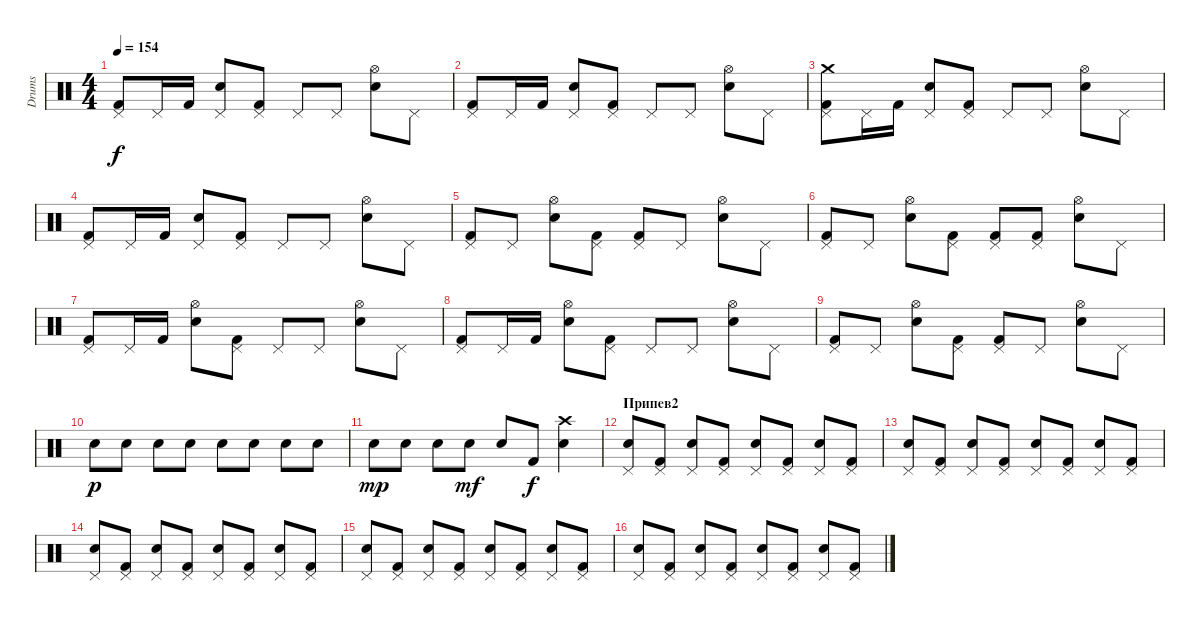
\track ("Drums" "Drums") {instrument percussion}
\staff {score}
\articulation defaults
\ts (4 4)
\tempo 154
\clef neutral
\ks c
("Pedal Hi-Hat (hit)" "Kick (hit) 2").8{dy f} "Pedal Hi-Hat (hit)".16 "Kick (hit) 2".16 ("Pedal Hi-Hat (hit)" "Electric Snare (hit)").8 ("Pedal Hi-Hat (hit)" "Kick (hit) 2").8 "Pedal Hi-Hat (hit)".8 "Pedal Hi-Hat (hit)".8 ("Hi-Hat (open)" "Electric Snare (hit)").8 "Pedal Hi-Hat (hit)".8 |
("Pedal Hi-Hat (hit)" "Kick (hit) 2").8 "Pedal Hi-Hat (hit)".16 "Kick (hit) 2".16 ("Pedal Hi-Hat (hit)" "Electric Snare (hit)").8 ("Pedal Hi-Hat (hit)" "Kick (hit) 2").8 "Pedal Hi-Hat (hit)".8 "Pedal Hi-Hat (hit)".8 ("Hi-Hat (open)" "Electric Snare (hit)").8 "Pedal Hi-Hat (hit)".8 |
("Crash medium (hit)" "Pedal Hi-Hat (hit)" "Kick (hit) 2").8 "Pedal Hi-Hat (hit)".16 "Kick (hit) 2".16 ("Pedal Hi-Hat (hit)" "Electric Snare (hit)").8 ("Pedal Hi-Hat (hit)" "Kick (hit) 2").8 "Pedal Hi-Hat (hit)".8 "Pedal Hi-Hat (hit)".8 ("Hi-Hat (open)" "Electric Snare (hit)").8 "Pedal Hi-Hat (hit)".8 |
("Pedal Hi-Hat (hit)" "Kick (hit) 2").8 "Pedal Hi-Hat (hit)".16 "Kick (hit) 2".16 ("Pedal Hi-Hat (hit)" "Electric Snare (hit)").8 ("Pedal Hi-Hat (hit)" "Kick (hit) 2").8 "Pedal Hi-Hat (hit)".8 "Pedal Hi-Hat (hit)".8 ("Hi-Hat (open)" "Electric Snare (hit)").8 "Pedal Hi-Hat (hit)".8 |
("Pedal Hi-Hat (hit)" "Kick (hit) 2").8 "Pedal Hi-Hat (hit)".8 ("Hi-Hat (open)" "Electric Snare (hit)").8 ("Pedal Hi-Hat (hit)" "Kick (hit) 2").8 ("Pedal Hi-Hat (hit)" "Kick (hit) 2").8 "Pedal Hi-Hat (hit)".8 ("Hi-Hat (open)" "Electric Snare (hit)").8 "Pedal Hi-Hat (hit)".8 |
("Pedal Hi-Hat (hit)" "Kick (hit) 2").8 "Pedal Hi-Hat (hit)".8 ("Hi-Hat (open)" "Electric Snare (hit)").8 ("Pedal Hi-Hat (hit)" "Kick (hit) 2").8 ("Pedal Hi-Hat (hit)" "Kick (hit) 2").8 ("Pedal Hi-Hat (hit)" "Kick (hit) 2").8 ("Hi-Hat (open)" "Electric Snare (hit)").8 "Pedal Hi-Hat (hit)".8 |
("Pedal Hi-Hat (hit)" "Kick (hit) 2").8 "Pedal Hi-Hat (hit)".16 "Kick (hit) 2".16 ("Hi-Hat (open)" "Electric Snare (hit)").8 ("Pedal Hi-Hat (hit)" "Kick (hit) 2").8 "Pedal Hi-Hat (hit)".8 "Pedal Hi-Hat (hit)".8 ("Hi-Hat (open)" "Electric Snare (hit)").8 "Pedal Hi-Hat (hit)".8 |
("Pedal Hi-Hat (hit)" "Kick (hit) 2").8 "Pedal Hi-Hat (hit)".16 "Kick (hit) 2".16 ("Hi-Hat (open)" "Electric Snare (hit)").8 ("Pedal Hi-Hat (hit)" "Kick (hit) 2").8 "Pedal Hi-Hat (hit)".8 "Pedal Hi-Hat (hit)".8 ("Hi-Hat (open)" "Electric Snare (hit)").8 "Pedal Hi-Hat (hit)".8 |
("Pedal Hi-Hat (hit)" "Kick (hit) 2").8 "Pedal Hi-Hat (hit)".8 ("Hi-Hat (open)" "Electric Snare (hit)").8 ("Pedal Hi-Hat (hit)" "Kick (hit) 2").8 ("Pedal Hi-Hat (hit)" "Kick (hit) 2").8 "Pedal Hi-Hat (hit)".8 ("Hi-Hat (open)" "Electric Snare (hit)").8 "Pedal Hi-Hat (hit)".8 |
"Electric Snare (hit)".8{dy p} "Electric Snare (hit)".8 "Electric Snare (hit)".8 "Electric Snare (hit)".8 "Electric Snare (hit)".8 "Electric Snare (hit)".8 "Electric Snare (hit)".8 "Electric Snare (hit)".8 |
"Electric Snare (hit)".8{dy mp} "Electric Snare (hit)".8 "Electric Snare (hit)".8 "Electric Snare (hit)".8{dy mf} "Electric Snare (hit)".8 "Kick (hit) 2".8{dy f} ("Crash high (hit)" "Electric Snare (hit)").4 |
\section ("" "Припев2")
("Electric Snare (hit)" "Pedal Hi-Hat (hit)").8 ("Kick (hit) 2" "Pedal Hi-Hat (hit)").8 ("Electric Snare (hit)" "Pedal Hi-Hat (hit)").8 ("Kick (hit) 2" "Pedal Hi-Hat (hit)").8 ("Electric Snare (hit)" "Pedal Hi-Hat (hit)").8 ("Kick (hit) 2" "Pedal Hi-Hat (hit)").8 ("Electric Snare (hit)" "Pedal Hi-Hat (hit)").8 ("Kick (hit) 2" "Pedal Hi-Hat (hit)").8 |
("Electric Snare (hit)" "Pedal Hi-Hat (hit)").8 ("Kick (hit) 2" "Pedal Hi-Hat (hit)").8 ("Electric Snare (hit)" "Pedal Hi-Hat (hit)").8 ("Kick (hit) 2" "Pedal Hi-Hat (hit)").8 ("Electric Snare (hit)" "Pedal Hi-Hat (hit)").8 ("Kick (hit) 2" "Pedal Hi-Hat (hit)").8 ("Electric Snare (hit)" "Pedal Hi-Hat (hit)").8 ("Kick (hit) 2" "Pedal Hi-Hat (hit)").8 |
("Electric Snare (hit)" "Pedal Hi-Hat (hit)").8 ("Kick (hit) 2" "Pedal Hi-Hat (hit)").8 ("Electric Snare (hit)" "Pedal Hi-Hat (hit)").8 ("Kick (hit) 2" "Pedal Hi-Hat (hit)").8 ("Electric Snare (hit)" "Pedal Hi-Hat (hit)").8 ("Kick (hit) 2" "Pedal Hi-Hat (hit)").8 ("Electric Snare (hit)" "Pedal Hi-Hat (hit)").8 ("Kick (hit) 2" "Pedal Hi-Hat (hit)").8 |
("Electric Snare (hit)" "Pedal Hi-Hat (hit)").8 ("Kick (hit) 2" "Pedal Hi-Hat (hit)").8 ("Electric Snare (hit)" "Pedal Hi-Hat (hit)").8 ("Kick (hit) 2" "Pedal Hi-Hat (hit)").8 ("Electric Snare (hit)" "Pedal Hi-Hat (hit)").8 ("Kick (hit) 2" "Pedal Hi-Hat (hit)").8 ("Electric Snare (hit)" "Pedal Hi-Hat (hit)").8 ("Kick (hit) 2" "Pedal Hi-Hat (hit)").8 |
("Electric Snare (hit)" "Pedal Hi-Hat (hit)").8 ("Kick (hit) 2" "Pedal Hi-Hat (hit)").8 ("Electric Snare (hit)" "Pedal Hi-Hat (hit)").8 ("Kick (hit) 2" "Pedal Hi-Hat (hit)").8 ("Electric Snare (hit)" "Pedal Hi-Hat (hit)").8 ("Kick (hit) 2" "Pedal Hi-Hat (hit)").8 ("Electric Snare (hit)" "Pedal Hi-Hat (hit)").8 ("Kick (hit) 2" "Pedal Hi-Hat (hit)").8
